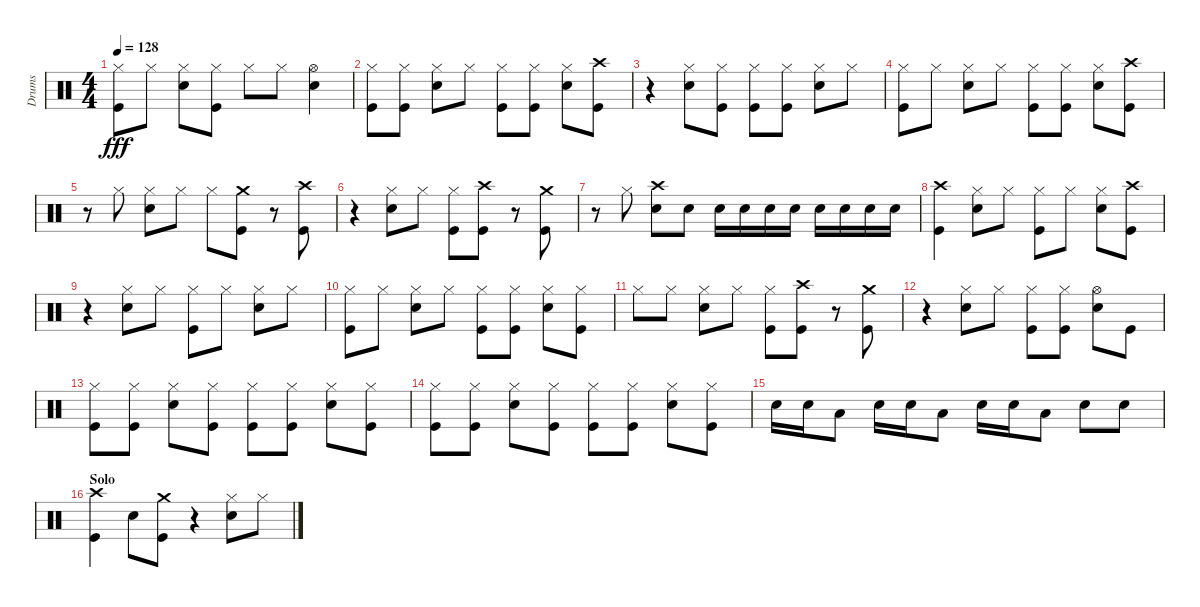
\track ("Drums" "Drums") {instrument percussion}
\staff {score}
\articulation defaults
\ts (4 4)
\tempo 128
\clef neutral
\ks c
("Hi-Hat (closed)" "Kick (hit)").8{dy fff} "Hi-Hat (closed)".8 ("Hi-Hat (closed)" "Snare (hit) 2").8 ("Hi-Hat (closed)" "Kick (hit)").8 "Hi-Hat (closed)".8 "Hi-Hat (closed)".8 ("Hi-Hat (open)" "Snare (hit) 2").4 |
("Hi-Hat (closed)" "Kick (hit)").8 ("Hi-Hat (closed)" "Kick (hit)").8 ("Hi-Hat (closed)" "Snare (hit) 2").8 "Hi-Hat (closed)".8 ("Hi-Hat (closed)" "Kick (hit)").8 ("Hi-Hat (closed)" "Kick (hit)").8 ("Hi-Hat (closed)" "Snare (hit) 2").8 ("Crash high (hit)" "Kick (hit)").8 |
r.4 ("Hi-Hat (closed)" "Snare (hit) 2").8 ("Hi-Hat (closed)" "Kick (hit)").8 ("Hi-Hat (closed)" "Kick (hit)").8 ("Hi-Hat (closed)" "Kick (hit)").8 ("Hi-Hat (closed)" "Snare (hit) 2").8 "Hi-Hat (closed)".8 |
("Hi-Hat (closed)" "Kick (hit)").8 "Hi-Hat (closed)".8 ("Hi-Hat (closed)" "Snare (hit) 2").8 "Hi-Hat (closed)".8 ("Hi-Hat (closed)" "Kick (hit)").8 ("Hi-Hat (closed)" "Kick (hit)").8 ("Hi-Hat (closed)" "Snare (hit) 2").8 ("Crash high (hit)" "Kick (hit)").8 |
r.8 "Hi-Hat (closed)".8 ("Hi-Hat (closed)" "Snare (hit) 2").8 "Hi-Hat (closed)".8 "Hi-Hat (closed)".8 ("Crash medium (hit)" "Kick (hit)").8 r.8 ("Crash high (hit)" "Kick (hit)").8 |
r.4 ("Hi-Hat (closed)" "Snare (hit) 2").8 "Hi-Hat (closed)".8 ("Hi-Hat (closed)" "Kick (hit)").8 ("Crash high (hit)" "Kick (hit)").8 r.8 ("Crash medium (hit)" "Kick (hit)").8 |
r.8 "Hi-Hat (closed)".8 ("Crash high (hit)" "Snare (hit) 2").8 "Snare (hit) 2".8 "Snare (hit) 2".16 "Snare (hit) 2".16 "Snare (hit) 2".16 "Snare (hit) 2".16 "Snare (hit) 2".16 "Snare (hit) 2".16 "Snare (hit) 2".16 "Snare (hit) 2".16 |
("Crash high (hit)" "Kick (hit)").4 ("Hi-Hat (closed)" "Snare (hit) 2").8 "Hi-Hat (closed)".8 ("Hi-Hat (closed)" "Kick (hit)").8 "Hi-Hat (closed)".8 ("Hi-Hat (closed)" "Snare (hit) 2").8 ("Crash high (hit)" "Kick (hit)").8 |
r.4 ("Hi-Hat (closed)" "Snare (hit) 2").8 "Hi-Hat (closed)".8 ("Hi-Hat (closed)" "Kick (hit)").8 "Hi-Hat (closed)".8 ("Hi-Hat (closed)" "Snare (hit) 2").8 "Hi-Hat (closed)".8 |
("Hi-Hat (closed)" "Kick (hit)").8 "Hi-Hat (closed)".8 ("Hi-Hat (closed)" "Snare (hit) 2").8 "Hi-Hat (closed)".8 ("Hi-Hat (closed)" "Kick (hit)").8 ("Hi-Hat (closed)" "Kick (hit)").8 ("Hi-Hat (closed)" "Snare (hit) 2").8 ("Hi-Hat (closed)" "Kick (hit)").8 |
"Hi-Hat (closed)".8 "Hi-Hat (closed)".8 ("Hi-Hat (closed)" "Snare (hit) 2").8 "Hi-Hat (closed)".8 ("Hi-Hat (closed)" "Kick (hit)").8 ("Crash high (hit)" "Kick (hit)").8 r.8 ("Crash medium (hit)" "Kick (hit)").8 |
r.4 ("Hi-Hat (closed)" "Snare (hit) 2").8 "Hi-Hat (closed)".8 ("Hi-Hat (closed)" "Kick (hit)").8 ("Hi-Hat (closed)" "Kick (hit)").8 ("Hi-Hat (open)" "Snare (hit) 2").8 "Kick (hit)".8 |
("Hi-Hat (closed)" "Kick (hit)").8 ("Hi-Hat (closed)" "Kick (hit)").8 ("Hi-Hat (closed)" "Snare (hit) 2").8 ("Hi-Hat (closed)" "Kick (hit)").8 ("Hi-Hat (closed)" "Kick (hit)").8 ("Hi-Hat (closed)" "Kick (hit)").8 ("Hi-Hat (closed)" "Snare (hit) 2").8 ("Hi-Hat (closed)" "Kick (hit)").8 |
("Hi-Hat (closed)" "Kick (hit)").8 ("Hi-Hat (closed)" "Kick (hit)").8 ("Hi-Hat (closed)" "Snare (hit) 2").8 ("Hi-Hat (closed)" "Kick (hit)").8 ("Hi-Hat (closed)" "Kick (hit)").8 ("Hi-Hat (closed)" "Kick (hit)").8 ("Hi-Hat (closed)" "Snare (hit) 2").8 ("Hi-Hat (closed)" "Kick (hit)").8 |
"Snare (hit) 2".16 "Snare (hit) 2".16 "Low Floor Tom (hit)".8 "Snare (hit) 2".16 "Snare (hit) 2".16 "Low Floor Tom (hit)".8 "Snare (hit) 2".16 "Snare (hit) 2".16 "Low Floor Tom (hit)".8 "Snare (hit) 2".8 "Snare (hit) 2".8 |
\section ("" "Solo")
("Crash high (hit)" "Kick (hit)").4 "Snare (hit) 2".8 ("Crash medium (hit)" "Kick (hit)").8 r.4 ("Hi-Hat (closed)" "Snare (hit) 2").8 "Hi-Hat (closed)".8
